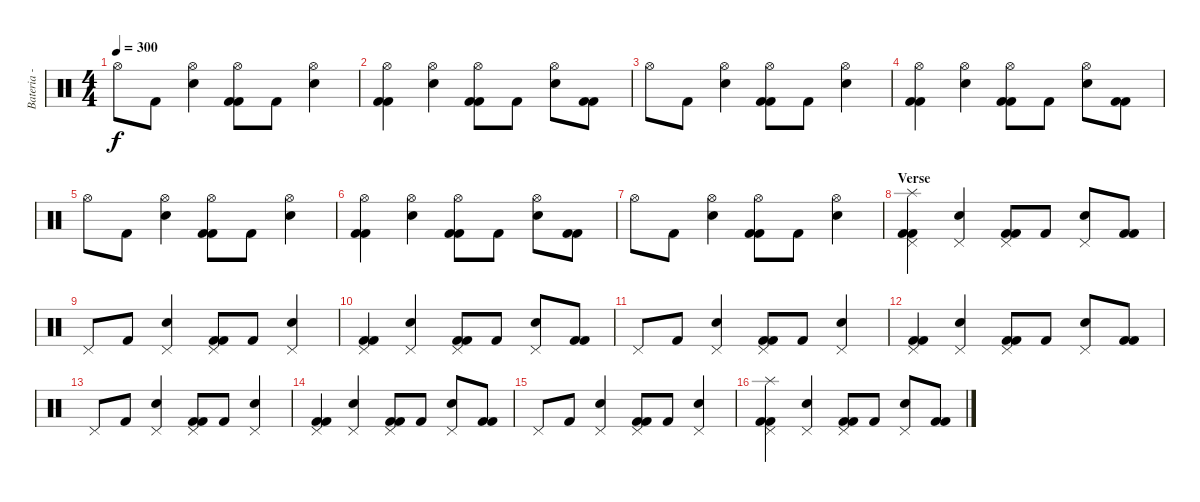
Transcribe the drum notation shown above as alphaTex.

\track ("Bateria - Larzon" "Bateria - ") {instrument percussion}
\staff {score}
\articulation defaults
\ts (4 4)
\tempo 300
\clef neutral
\ks c "Hi-Hat (open)".8{dy f} "Kick (hit) 2".8
("Snare (hit) 2" "Hi-Hat (open)").4 ("Kick (hit) 2" "Kick (hit) 2" "Hi-Hat (open)").8 "Kick (hit) 2".8 ("Snare (hit) 2" "Hi-Hat (open)").4 |
("Hi-Hat (open)" "Kick (hit) 2" "Kick (hit) 2").4 ("Snare (hit) 2" "Hi-Hat (open)").4 ("Kick (hit) 2" "Kick (hit) 2" "Hi-Hat (open)").8 "Kick (hit) 2".8 ("Snare (hit) 2" "Hi-Hat (open)").8 ("Kick (hit) 2" "Kick (hit) 2").8 |
"Hi-Hat (open)".8 "Kick (hit) 2".8 ("Snare (hit) 2" "Hi-Hat (open)").4 ("Kick (hit) 2" "Kick (hit) 2" "Hi-Hat (open)").8 "Kick (hit) 2".8 ("Snare (hit) 2" "Hi-Hat (open)").4 |
("Kick (hit) 2" "Kick (hit) 2" "Hi-Hat (open)").4 ("Snare (hit) 2" "Hi-Hat (open)").4 ("Kick (hit) 2" "Kick (hit) 2" "Hi-Hat (open)").8 "Kick (hit) 2".8 ("Snare (hit) 2" "Hi-Hat (open)").8 ("Kick (hit) 2" "Kick (hit) 2").8 |
"Hi-Hat (open)".8 "Kick (hit) 2".8 ("Snare (hit) 2" "Hi-Hat (open)").4 ("Kick (hit) 2" "Kick (hit) 2" "Hi-Hat (open)").8 "Kick (hit) 2".8 ("Snare (hit) 2" "Hi-Hat (open)").4 |
("Hi-Hat (open)" "Kick (hit) 2" "Kick (hit) 2").4 ("Snare (hit) 2" "Hi-Hat (open)").4 ("Kick (hit) 2" "Kick (hit) 2" "Hi-Hat (open)").8 "Kick (hit) 2".8 ("Snare (hit) 2" "Hi-Hat (open)").8 ("Kick (hit) 2" "Kick (hit) 2").8 |
"Hi-Hat (open)".8 "Kick (hit) 2".8 ("Snare (hit) 2" "Hi-Hat (open)").4 ("Kick (hit) 2" "Kick (hit) 2" "Hi-Hat (open)").8 "Kick (hit) 2".8 ("Snare (hit) 2" "Hi-Hat (open)").4 |
\section ("" "Verse")
("Kick (hit) 2" "Kick (hit) 2" "Pedal Hi-Hat (hit)" "Splash (hit)").4 ("Snare (hit) 2" "Pedal Hi-Hat (hit)").4 ("Kick (hit) 2" "Kick (hit) 2" "Pedal Hi-Hat (hit)").8 "Kick (hit) 2".8 ("Snare (hit) 2" "Pedal Hi-Hat (hit)").8 ("Kick (hit) 2" "Kick (hit) 2").8 |
"Pedal Hi-Hat (hit)".8 "Kick (hit) 2".8 ("Snare (hit) 2" "Pedal Hi-Hat (hit)").4 ("Kick (hit) 2" "Kick (hit) 2" "Pedal Hi-Hat (hit)").8 "Kick (hit) 2".8 ("Snare (hit) 2" "Pedal Hi-Hat (hit)").4 |
("Kick (hit) 2" "Kick (hit) 2" "Pedal Hi-Hat (hit)").4 ("Snare (hit) 2" "Pedal Hi-Hat (hit)").4 ("Kick (hit) 2" "Kick (hit) 2" "Pedal Hi-Hat (hit)").8 "Kick (hit) 2".8 ("Snare (hit) 2" "Pedal Hi-Hat (hit)").8 ("Kick (hit) 2" "Kick (hit) 2").8 |
"Pedal Hi-Hat (hit)".8 "Kick (hit) 2".8 ("Snare (hit) 2" "Pedal Hi-Hat (hit)").4 ("Kick (hit) 2" "Kick (hit) 2" "Pedal Hi-Hat (hit)").8 "Kick (hit) 2".8 ("Snare (hit) 2" "Pedal Hi-Hat (hit)").4 |
("Kick (hit) 2" "Kick (hit) 2" "Pedal Hi-Hat (hit)").4 ("Snare (hit) 2" "Pedal Hi-Hat (hit)").4 ("Kick (hit) 2" "Kick (hit) 2" "Pedal Hi-Hat (hit)").8 "Kick (hit) 2".8 ("Snare (hit) 2" "Pedal Hi-Hat (hit)").8 ("Kick (hit) 2" "Kick (hit) 2").8 |
"Pedal Hi-Hat (hit)".8 "Kick (hit) 2".8 ("Snare (hit) 2" "Pedal Hi-Hat (hit)").4 ("Kick (hit) 2" "Kick (hit) 2" "Pedal Hi-Hat (hit)").8 "Kick (hit) 2".8 ("Snare (hit) 2" "Pedal Hi-Hat (hit)").4 |
("Kick (hit) 2" "Kick (hit) 2" "Pedal Hi-Hat (hit)").4 ("Snare (hit) 2" "Pedal Hi-Hat (hit)").4 ("Kick (hit) 2" "Kick (hit) 2" "Pedal Hi-Hat (hit)").8 "Kick (hit) 2".8 ("Snare (hit) 2" "Pedal Hi-Hat (hit)").8 ("Kick (hit) 2" "Kick (hit) 2").8 |
"Pedal Hi-Hat (hit)".8 "Kick (hit) 2".8 ("Snare (hit) 2" "Pedal Hi-Hat (hit)").4 ("Kick (hit) 2" "Kick (hit) 2" "Pedal Hi-Hat (hit)").8 "Kick (hit) 2".8 ("Snare (hit) 2" "Pedal Hi-Hat (hit)").4 |
("Kick (hit) 2" "Kick (hit) 2" "Pedal Hi-Hat (hit)" "Splash (hit)").4 ("Snare (hit) 2" "Pedal Hi-Hat (hit)").4 ("Kick (hit) 2" "Kick (hit) 2" "Pedal Hi-Hat (hit)").8 "Kick (hit) 2".8 ("Snare (hit) 2" "Pedal Hi-Hat (hit)").8 ("Kick (hit) 2" "Kick (hit) 2").8
